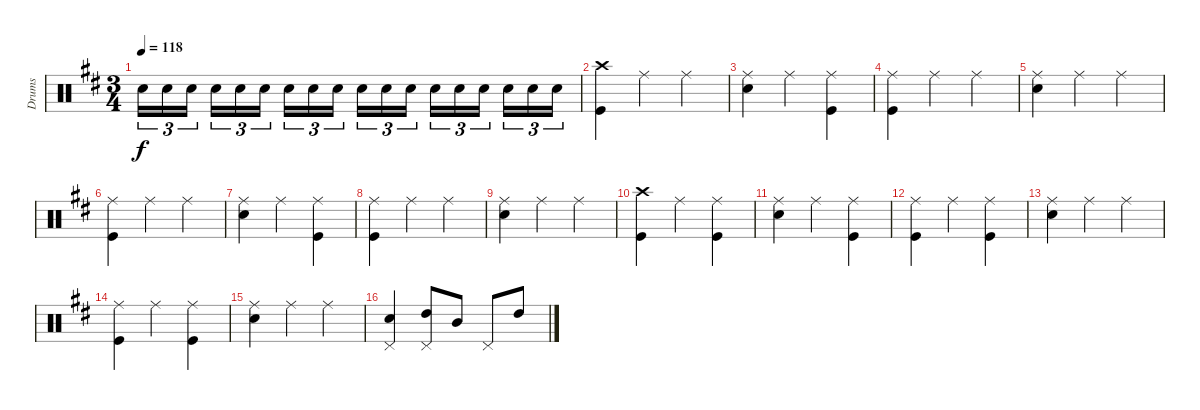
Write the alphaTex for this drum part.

\track ("Drums" "Drums") {instrument percussion}
\staff {score}
\articulation defaults
\ts (3 4)
\tempo 118
\clef neutral
\ks d "Snare (hit) 2".16{tu (3 2) dy f} "Snare (hit) 2".16{tu (3 2)} "Snare (hit) 2".16{tu (3 2) beam splitsecondary} "Snare (hit) 2".16{tu (3 2)} "Snare (hit) 2".16{tu (3 2)} "Snare (hit) 2".16{tu (3 2)} "Snare (hit) 2".16{tu (3 2)} "Snare (hit) 2".16{tu (3 2)} "Snare (hit) 2".16{tu (3 2) beam splitsecondary} "Snare (hit) 2".16{tu (3 2)} "Snare (hit) 2".16{tu (3 2)} "Snare (hit) 2".16{tu (3 2)} "Snare (hit) 2".16{tu (3 2)} "Snare (hit) 2".16{tu (3 2)} "Snare (hit) 2".16{tu (3 2) beam splitsecondary} "Snare (hit) 2".16{tu (3 2)} "Snare (hit) 2".16{tu (3 2)} "Snare (hit) 2".16{tu (3 2)}
|
("Crash high (hit)" "Kick (hit)").4 "Ride (middle)".4 "Ride (middle)".4 |
("Ride (middle)" "Snare (hit) 2").4 "Ride (middle)".4 ("Ride (middle)" "Kick (hit)").4 |
("Ride (middle)" "Kick (hit)").4 "Ride (middle)".4 "Ride (middle)".4 |
("Ride (middle)" "Snare (hit) 2").4 "Ride (middle)".4 "Ride (middle)".4 |
("Ride (middle)" "Kick (hit)").4 "Ride (middle)".4 "Ride (middle)".4 |
("Ride (middle)" "Snare (hit) 2").4 "Ride (middle)".4 ("Ride (middle)" "Kick (hit)").4 |
("Ride (middle)" "Kick (hit)").4 "Ride (middle)".4 "Ride (middle)".4 |
("Ride (middle)" "Snare (hit) 2").4 "Ride (middle)".4 "Ride (middle)".4 |
("Crash high (hit)" "Kick (hit)").4 "Ride (middle)".4 ("Ride (middle)" "Kick (hit)").4 |
("Ride (middle)" "Snare (hit) 2").4 "Ride (middle)".4 ("Ride (middle)" "Kick (hit)").4 |
("Ride (middle)" "Kick (hit)").4 "Ride (middle)".4 ("Ride (middle)" "Kick (hit)").4 |
("Ride (middle)" "Snare (hit) 2").4 "Ride (middle)".4 "Ride (middle)".4 |
("Ride (middle)" "Kick (hit)").4 "Ride (middle)".4 ("Ride (middle)" "Kick (hit)").4 |
("Ride (middle)" "Snare (hit) 2").4 "Ride (middle)".4 "Ride (middle)".4 |
("Pedal Hi-Hat (hit)" "Snare (hit) 2").4 ("Pedal Hi-Hat (hit)" "High Tom (hit)").8 "Mid Tom (hit)".8 "Pedal Hi-Hat (hit)".8 "High Tom (hit)".8
